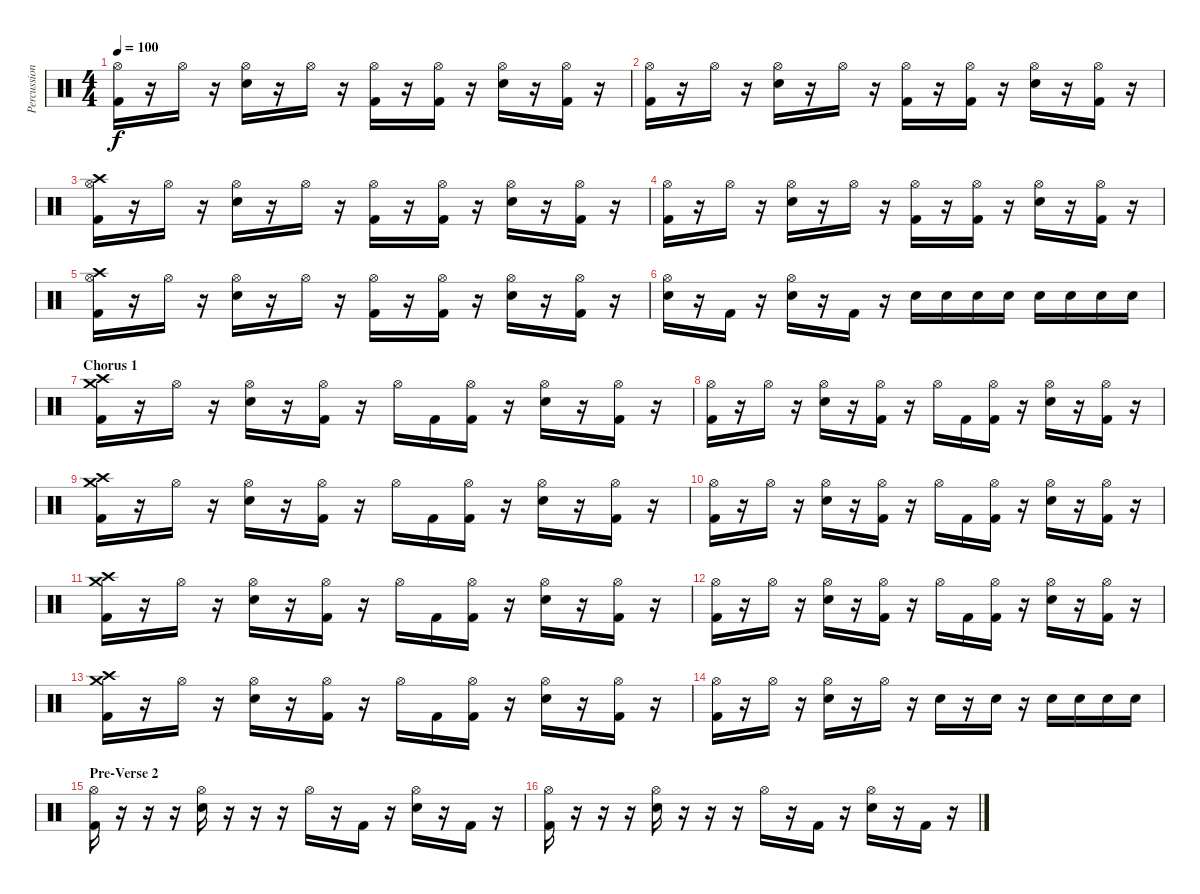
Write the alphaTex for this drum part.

\track ("Percussion" "Percussion") {instrument percussion}
\staff {score}
\articulation defaults
\ts (4 4)
\tempo 100
\clef neutral
\ks c
("Kick (hit) 2" "Hi-Hat (open)").16{dy f} r.16 "Hi-Hat (open)".16 r.16 ("Snare (hit) 2" "Hi-Hat (open)").16 r.16 "Hi-Hat (open)".16 r.16 ("Kick (hit) 2" "Hi-Hat (open)").16 r.16 ("Kick (hit) 2" "Hi-Hat (open)").16 r.16 ("Snare (hit) 2" "Hi-Hat (open)").16 r.16 ("Kick (hit) 2" "Hi-Hat (open)").16 r.16 |
("Kick (hit) 2" "Hi-Hat (open)").16 r.16 "Hi-Hat (open)".16 r.16 ("Snare (hit) 2" "Hi-Hat (open)").16 r.16 "Hi-Hat (open)".16 r.16 ("Kick (hit) 2" "Hi-Hat (open)").16 r.16 ("Kick (hit) 2" "Hi-Hat (open)").16 r.16 ("Snare (hit) 2" "Hi-Hat (open)").16 r.16 ("Kick (hit) 2" "Hi-Hat (open)").16 r.16 |
("Kick (hit) 2" "Hi-Hat (open)" "Crash high (hit)").16 r.16 "Hi-Hat (open)".16 r.16 ("Snare (hit) 2" "Hi-Hat (open)").16 r.16 "Hi-Hat (open)".16 r.16 ("Kick (hit) 2" "Hi-Hat (open)").16 r.16 ("Kick (hit) 2" "Hi-Hat (open)").16 r.16 ("Snare (hit) 2" "Hi-Hat (open)").16 r.16 ("Kick (hit) 2" "Hi-Hat (open)").16 r.16 |
("Kick (hit) 2" "Hi-Hat (open)").16 r.16 "Hi-Hat (open)".16 r.16 ("Snare (hit) 2" "Hi-Hat (open)").16 r.16 "Hi-Hat (open)".16 r.16 ("Kick (hit) 2" "Hi-Hat (open)").16 r.16 ("Kick (hit) 2" "Hi-Hat (open)").16 r.16 ("Snare (hit) 2" "Hi-Hat (open)").16 r.16 ("Kick (hit) 2" "Hi-Hat (open)").16 r.16 |
("Kick (hit) 2" "Hi-Hat (open)" "Crash high (hit)").16 r.16 "Hi-Hat (open)".16 r.16 ("Snare (hit) 2" "Hi-Hat (open)").16 r.16 "Hi-Hat (open)".16 r.16 ("Kick (hit) 2" "Hi-Hat (open)").16 r.16 ("Kick (hit) 2" "Hi-Hat (open)").16 r.16 ("Snare (hit) 2" "Hi-Hat (open)").16 r.16 ("Kick (hit) 2" "Hi-Hat (open)").16 r.16 |
("Snare (hit) 2" "Hi-Hat (open)").16 r.16 "Kick (hit) 2".16 r.16 ("Snare (hit) 2" "Hi-Hat (open)").16 r.16 "Kick (hit) 2".16 r.16 "Snare (hit) 2".16 "Snare (hit) 2".16 "Snare (hit) 2".16 "Snare (hit) 2".16 "Snare (hit) 2".16 "Snare (hit) 2".16 "Snare (hit) 2".16 "Snare (hit) 2".16 |
\section ("" "Chorus 1")
("Kick (hit) 2" "Crash medium (hit)" "Crash high (hit)").16 r.16 "Hi-Hat (open)".16 r.16 ("Snare (hit) 2" "Hi-Hat (open)").16 r.16 ("Kick (hit) 2" "Hi-Hat (open)").16 r.16 "Hi-Hat (open)".16 "Kick (hit) 2".16 ("Kick (hit) 2" "Hi-Hat (open)").16 r.16 ("Snare (hit) 2" "Hi-Hat (open)").16 r.16 ("Kick (hit) 2" "Hi-Hat (open)").16 r.16 |
("Kick (hit) 2" "Hi-Hat (open)").16 r.16 "Hi-Hat (open)".16 r.16 ("Snare (hit) 2" "Hi-Hat (open)").16 r.16 ("Kick (hit) 2" "Hi-Hat (open)").16 r.16 "Hi-Hat (open)".16 "Kick (hit) 2".16 ("Kick (hit) 2" "Hi-Hat (open)").16 r.16 ("Snare (hit) 2" "Hi-Hat (open)").16 r.16 ("Kick (hit) 2" "Hi-Hat (open)").16 r.16 |
("Kick (hit) 2" "Crash medium (hit)" "Crash high (hit)").16 r.16 "Hi-Hat (open)".16 r.16 ("Snare (hit) 2" "Hi-Hat (open)").16 r.16 ("Kick (hit) 2" "Hi-Hat (open)").16 r.16 "Hi-Hat (open)".16 "Kick (hit) 2".16 ("Kick (hit) 2" "Hi-Hat (open)").16 r.16 ("Snare (hit) 2" "Hi-Hat (open)").16 r.16 ("Kick (hit) 2" "Hi-Hat (open)").16 r.16 |
("Kick (hit) 2" "Hi-Hat (open)").16 r.16 "Hi-Hat (open)".16 r.16 ("Snare (hit) 2" "Hi-Hat (open)").16 r.16 ("Kick (hit) 2" "Hi-Hat (open)").16 r.16 "Hi-Hat (open)".16 "Kick (hit) 2".16 ("Kick (hit) 2" "Hi-Hat (open)").16 r.16 ("Snare (hit) 2" "Hi-Hat (open)").16 r.16 ("Kick (hit) 2" "Hi-Hat (open)").16 r.16 |
("Kick (hit) 2" "Crash medium (hit)" "Crash high (hit)").16 r.16 "Hi-Hat (open)".16 r.16 ("Snare (hit) 2" "Hi-Hat (open)").16 r.16 ("Kick (hit) 2" "Hi-Hat (open)").16 r.16 "Hi-Hat (open)".16 "Kick (hit) 2".16 ("Kick (hit) 2" "Hi-Hat (open)").16 r.16 ("Snare (hit) 2" "Hi-Hat (open)").16 r.16 ("Kick (hit) 2" "Hi-Hat (open)").16 r.16 |
("Kick (hit) 2" "Hi-Hat (open)").16 r.16 "Hi-Hat (open)".16 r.16 ("Snare (hit) 2" "Hi-Hat (open)").16 r.16 ("Kick (hit) 2" "Hi-Hat (open)").16 r.16 "Hi-Hat (open)".16 "Kick (hit) 2".16 ("Kick (hit) 2" "Hi-Hat (open)").16 r.16 ("Snare (hit) 2" "Hi-Hat (open)").16 r.16 ("Kick (hit) 2" "Hi-Hat (open)").16 r.16 |
("Kick (hit) 2" "Crash medium (hit)" "Crash high (hit)").16 r.16 "Hi-Hat (open)".16 r.16 ("Snare (hit) 2" "Hi-Hat (open)").16 r.16 ("Kick (hit) 2" "Hi-Hat (open)").16 r.16 "Hi-Hat (open)".16 "Kick (hit) 2".16 ("Kick (hit) 2" "Hi-Hat (open)").16 r.16 ("Snare (hit) 2" "Hi-Hat (open)").16 r.16 ("Kick (hit) 2" "Hi-Hat (open)").16 r.16 |
("Kick (hit) 2" "Hi-Hat (open)").16 r.16 "Hi-Hat (open)".16 r.16 ("Snare (hit) 2" "Hi-Hat (open)").16 r.16 "Hi-Hat (open)".16 r.16 "Snare (hit) 2".16 r.16 "Snare (hit) 2".16 r.16 "Snare (hit) 2".16 "Snare (hit) 2".16 "Snare (hit) 2".16 "Snare (hit) 2".16 |
\section ("" "Pre-Verse 2")
("Kick (hit) 2" "Hi-Hat (open)").16 r.16 r.16 r.16 ("Snare (hit) 2" "Hi-Hat (open)").16 r.16 r.16 r.16 "Hi-Hat (open)".16 r.16 "Kick (hit) 2".16 r.16 ("Snare (hit) 2" "Hi-Hat (open)").16 r.16 "Kick (hit) 2".16 r.16 |
("Kick (hit) 2" "Hi-Hat (open)").16 r.16 r.16 r.16 ("Snare (hit) 2" "Hi-Hat (open)").16 r.16 r.16 r.16 "Hi-Hat (open)".16 r.16 "Kick (hit) 2".16 r.16 ("Snare (hit) 2" "Hi-Hat (open)").16 r.16 "Kick (hit) 2".16 r.16
